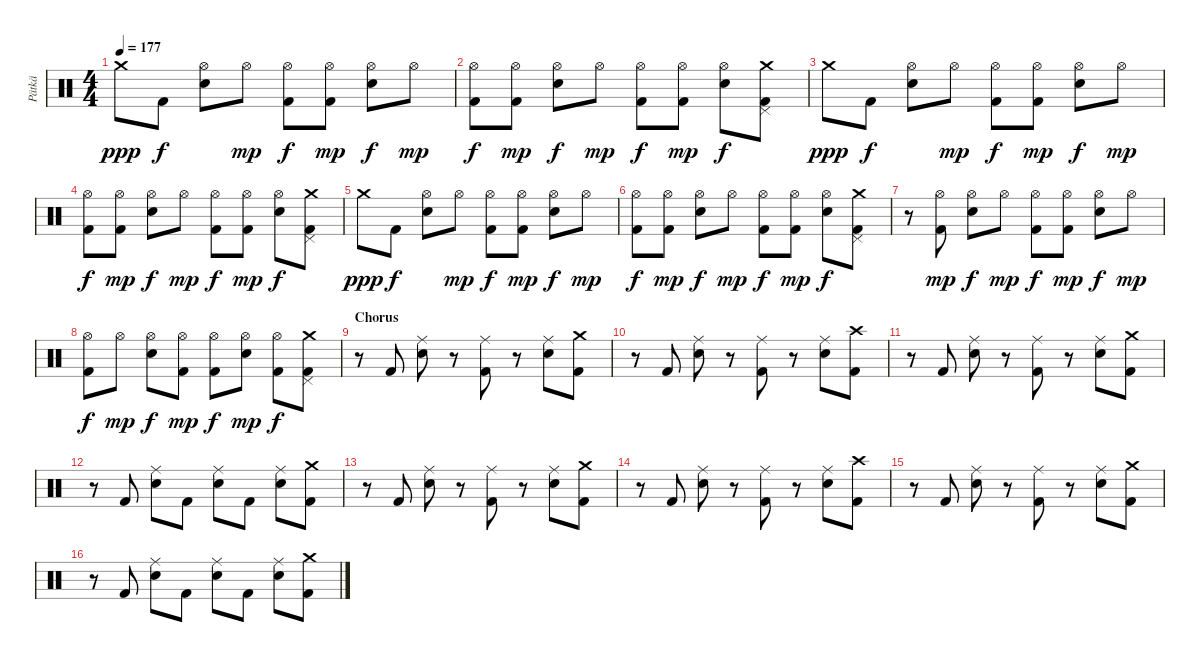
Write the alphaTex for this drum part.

\track ("Pätkä" "Pätkä") {instrument percussion}
\staff {score}
\articulation defaults
\ts (4 4)
\tempo 177
\clef neutral
\ks c "Crash medium (hit)".8{dy ppp} "Kick (hit) 2".8{dy f}
("Hi-Hat (open)" "Electric Snare (hit)").8 "Hi-Hat (open)".8{dy mp} ("Hi-Hat (open)" "Kick (hit) 2").8{dy f} ("Hi-Hat (open)" "Kick (hit) 2").8{dy mp} ("Hi-Hat (open)" "Electric Snare (hit)").8{dy f} "Hi-Hat (open)".8{dy mp} |
("Hi-Hat (open)" "Kick (hit) 2").8{dy f} ("Hi-Hat (open)" "Kick (hit) 2").8{dy mp} ("Hi-Hat (open)" "Electric Snare (hit)").8{dy f} "Hi-Hat (open)".8{dy mp} ("Hi-Hat (open)" "Kick (hit) 2").8{dy f} ("Hi-Hat (open)" "Kick (hit) 2").8{dy mp} ("Hi-Hat (open)" "Electric Snare (hit)").8{dy f} ("Crash medium (hit)" "Pedal Hi-Hat (hit)" "Kick (hit) 2").8 |
"Crash medium (hit)".8{dy ppp} "Kick (hit) 2".8{dy f} ("Hi-Hat (open)" "Electric Snare (hit)").8 "Hi-Hat (open)".8{dy mp} ("Hi-Hat (open)" "Kick (hit) 2").8{dy f} ("Hi-Hat (open)" "Kick (hit) 2").8{dy mp} ("Hi-Hat (open)" "Electric Snare (hit)").8{dy f} "Hi-Hat (open)".8{dy mp} |
("Hi-Hat (open)" "Kick (hit) 2").8{dy f} ("Hi-Hat (open)" "Kick (hit) 2").8{dy mp} ("Hi-Hat (open)" "Electric Snare (hit)").8{dy f} "Hi-Hat (open)".8{dy mp} ("Hi-Hat (open)" "Kick (hit) 2").8{dy f} ("Hi-Hat (open)" "Kick (hit) 2").8{dy mp} ("Hi-Hat (open)" "Electric Snare (hit)").8{dy f} ("Crash medium (hit)" "Pedal Hi-Hat (hit)" "Kick (hit) 2").8 |
"Crash medium (hit)".8{dy ppp} "Kick (hit) 2".8{dy f} ("Hi-Hat (open)" "Electric Snare (hit)").8 "Hi-Hat (open)".8{dy mp} ("Hi-Hat (open)" "Kick (hit) 2").8{dy f} ("Hi-Hat (open)" "Kick (hit) 2").8{dy mp} ("Hi-Hat (open)" "Electric Snare (hit)").8{dy f} "Hi-Hat (open)".8{dy mp} |
("Hi-Hat (open)" "Kick (hit) 2").8{dy f} ("Hi-Hat (open)" "Kick (hit) 2").8{dy mp} ("Hi-Hat (open)" "Electric Snare (hit)").8{dy f} "Hi-Hat (open)".8{dy mp} ("Hi-Hat (open)" "Kick (hit) 2").8{dy f} ("Hi-Hat (open)" "Kick (hit) 2").8{dy mp} ("Hi-Hat (open)" "Electric Snare (hit)").8{dy f} ("Crash medium (hit)" "Pedal Hi-Hat (hit)" "Kick (hit) 2").8 |
r.8 ("Hi-Hat (open)" "Kick (hit) 2").8{dy mp} ("Hi-Hat (open)" "Electric Snare (hit)").8{dy f} "Hi-Hat (open)".8{dy mp} ("Hi-Hat (open)" "Kick (hit) 2").8{dy f} ("Hi-Hat (open)" "Kick (hit) 2").8{dy mp} ("Hi-Hat (open)" "Electric Snare (hit)").8{dy f} "Hi-Hat (open)".8{dy mp} |
("Hi-Hat (open)" "Kick (hit) 2").8{dy f} "Hi-Hat (open)".8{dy mp} ("Hi-Hat (open)" "Electric Snare (hit)").8{dy f} ("Hi-Hat (open)" "Kick (hit) 2").8{dy mp} ("Hi-Hat (open)" "Kick (hit) 2").8{dy f} ("Hi-Hat (open)" "Electric Snare (hit)").8{dy mp} ("Hi-Hat (open)" "Kick (hit) 2").8{dy f} ("Crash medium (hit)" "Pedal Hi-Hat (hit)" "Kick (hit) 2").8 |
\section ("" "Chorus")
r.8 "Kick (hit) 2".8 ("Ride (middle)" "Electric Snare (hit)").8 r.8 ("Ride (middle)" "Kick (hit) 2").8 r.8 ("Ride (middle)" "Electric Snare (hit)").8 ("Crash medium (hit)" "Kick (hit) 2").8 |
r.8 "Kick (hit) 2".8 ("Ride (middle)" "Electric Snare (hit)").8 r.8 ("Ride (middle)" "Kick (hit) 2").8 r.8 ("Ride (middle)" "Electric Snare (hit)").8 ("Crash high (hit)" "Kick (hit) 2").8 |
r.8 "Kick (hit) 2".8 ("Ride (middle)" "Electric Snare (hit)").8 r.8 ("Ride (middle)" "Kick (hit) 2").8 r.8 ("Ride (middle)" "Electric Snare (hit)").8 ("Crash medium (hit)" "Kick (hit) 2").8 |
r.8 "Kick (hit) 2".8 ("Ride (middle)" "Electric Snare (hit)").8 "Kick (hit) 2".8 ("Ride (middle)" "Electric Snare (hit)").8 "Kick (hit) 2".8 ("Ride (middle)" "Electric Snare (hit)").8 ("Crash medium (hit)" "Kick (hit) 2").8 |
r.8 "Kick (hit) 2".8 ("Ride (middle)" "Electric Snare (hit)").8 r.8 ("Ride (middle)" "Kick (hit) 2").8 r.8 ("Ride (middle)" "Electric Snare (hit)").8 ("Crash medium (hit)" "Kick (hit) 2").8 |
r.8 "Kick (hit) 2".8 ("Ride (middle)" "Electric Snare (hit)").8 r.8 ("Ride (middle)" "Kick (hit) 2").8 r.8 ("Ride (middle)" "Electric Snare (hit)").8 ("Crash high (hit)" "Kick (hit) 2").8 |
r.8 "Kick (hit) 2".8 ("Ride (middle)" "Electric Snare (hit)").8 r.8 ("Ride (middle)" "Kick (hit) 2").8 r.8 ("Ride (middle)" "Electric Snare (hit)").8 ("Crash medium (hit)" "Kick (hit) 2").8 |
r.8 "Kick (hit) 2".8 ("Ride (middle)" "Electric Snare (hit)").8 "Kick (hit) 2".8 ("Ride (middle)" "Electric Snare (hit)").8 "Kick (hit) 2".8 ("Ride (middle)" "Electric Snare (hit)").8 ("Crash medium (hit)" "Kick (hit) 2").8
